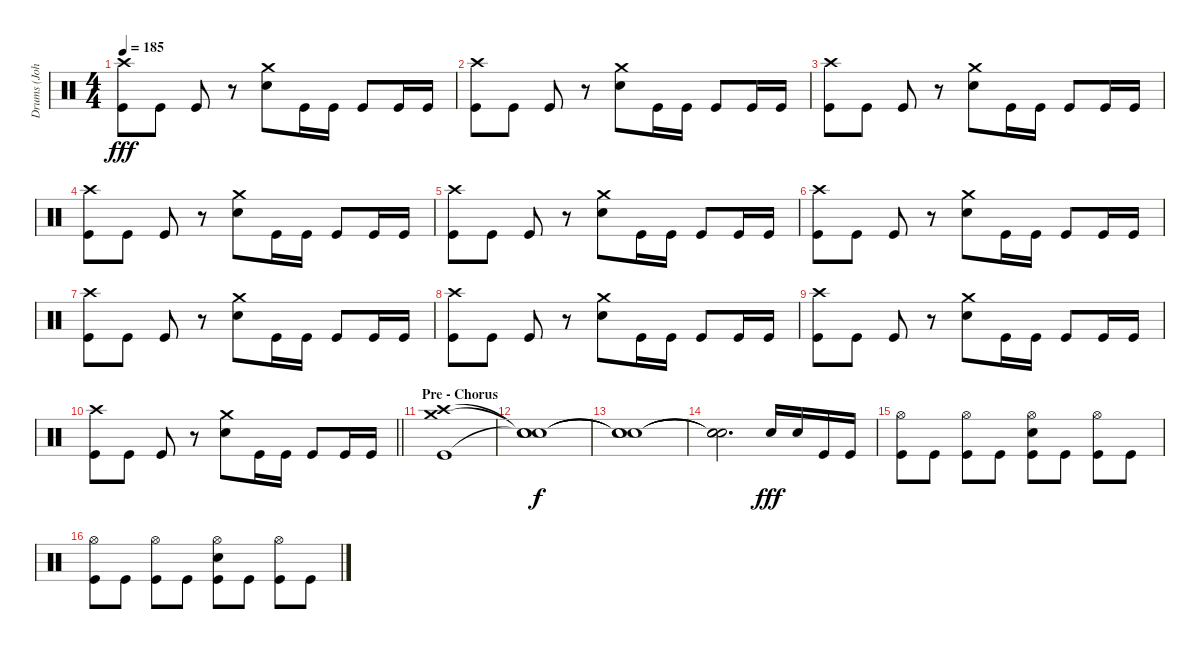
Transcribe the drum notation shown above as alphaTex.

\track ("Drums (John Bengtsson)" "Drums (Joh") {instrument percussion}
\staff {score}
\articulation defaults
\ts (4 4)
\tempo 185
\clef neutral
\ks c
("Crash high (hit)" "Kick (hit)").8{dy fff} "Kick (hit)".8 "Kick (hit)".8 r.8 ("Crash medium (hit)" "Electric Snare (hit)").8 "Kick (hit)".16 "Kick (hit)".16 "Kick (hit)".8 "Kick (hit)".16 "Kick (hit)".16 |
("Crash high (hit)" "Kick (hit)").8 "Kick (hit)".8 "Kick (hit)".8 r.8 ("Crash medium (hit)" "Electric Snare (hit)").8 "Kick (hit)".16 "Kick (hit)".16 "Kick (hit)".8 "Kick (hit)".16 "Kick (hit)".16 |
("Crash high (hit)" "Kick (hit)").8 "Kick (hit)".8 "Kick (hit)".8 r.8 ("Crash medium (hit)" "Electric Snare (hit)").8 "Kick (hit)".16 "Kick (hit)".16 "Kick (hit)".8 "Kick (hit)".16 "Kick (hit)".16 |
("Crash high (hit)" "Kick (hit)").8 "Kick (hit)".8 "Kick (hit)".8 r.8 ("Crash medium (hit)" "Electric Snare (hit)").8 "Kick (hit)".16 "Kick (hit)".16 "Kick (hit)".8 "Kick (hit)".16 "Kick (hit)".16 |
("Crash high (hit)" "Kick (hit)").8 "Kick (hit)".8 "Kick (hit)".8 r.8 ("Crash medium (hit)" "Electric Snare (hit)").8 "Kick (hit)".16 "Kick (hit)".16 "Kick (hit)".8 "Kick (hit)".16 "Kick (hit)".16 |
("Crash high (hit)" "Kick (hit)").8 "Kick (hit)".8 "Kick (hit)".8 r.8 ("Crash medium (hit)" "Electric Snare (hit)").8 "Kick (hit)".16 "Kick (hit)".16 "Kick (hit)".8 "Kick (hit)".16 "Kick (hit)".16 |
("Crash high (hit)" "Kick (hit)").8 "Kick (hit)".8 "Kick (hit)".8 r.8 ("Crash medium (hit)" "Electric Snare (hit)").8 "Kick (hit)".16 "Kick (hit)".16 "Kick (hit)".8 "Kick (hit)".16 "Kick (hit)".16 |
("Crash high (hit)" "Kick (hit)").8 "Kick (hit)".8 "Kick (hit)".8 r.8 ("Crash medium (hit)" "Electric Snare (hit)").8 "Kick (hit)".16 "Kick (hit)".16 "Kick (hit)".8 "Kick (hit)".16 "Kick (hit)".16 |
("Crash high (hit)" "Kick (hit)").8 "Kick (hit)".8 "Kick (hit)".8 r.8 ("Crash medium (hit)" "Electric Snare (hit)").8 "Kick (hit)".16 "Kick (hit)".16 "Kick (hit)".8 "Kick (hit)".16 "Kick (hit)".16 |
\barLineRight lightlight
("Crash high (hit)" "Kick (hit)").8 "Kick (hit)".8 "Kick (hit)".8 r.8 ("Crash medium (hit)" "Electric Snare (hit)").8 "Kick (hit)".16 "Kick (hit)".16 "Kick (hit)".8 "Kick (hit)".16 "Kick (hit)".16 |
\section ("" "Pre - Chorus")
("Crash high (hit)" "Crash medium (hit)" "Kick (hit)").1 |
("Snare (hit)"{t} "Snare (hit)"{t} "Snare (hit)"{t}).1{dy f} |
("Snare (hit)"{t} "Snare (hit)"{t} "Snare (hit)"{t}).1 |
("Snare (hit)"{t} "Snare (hit)"{t} "Snare (hit)"{t}).2{d} "Electric Snare (hit)".16{dy fff} "Electric Snare (hit)".16 "Kick (hit)".16 "Kick (hit)".16 |
("Hi-Hat (open)" "Kick (hit)").8 "Kick (hit)".8 ("Hi-Hat (open)" "Kick (hit)").8 "Kick (hit)".8 ("Hi-Hat (open)" "Electric Snare (hit)" "Kick (hit)").8 "Kick (hit)".8 ("Hi-Hat (open)" "Kick (hit)").8 "Kick (hit)".8 |
("Hi-Hat (open)" "Kick (hit)").8 "Kick (hit)".8 ("Hi-Hat (open)" "Kick (hit)").8 "Kick (hit)".8 ("Hi-Hat (open)" "Electric Snare (hit)" "Kick (hit)").8 "Kick (hit)".8 ("Hi-Hat (open)" "Kick (hit)").8 "Kick (hit)".8
